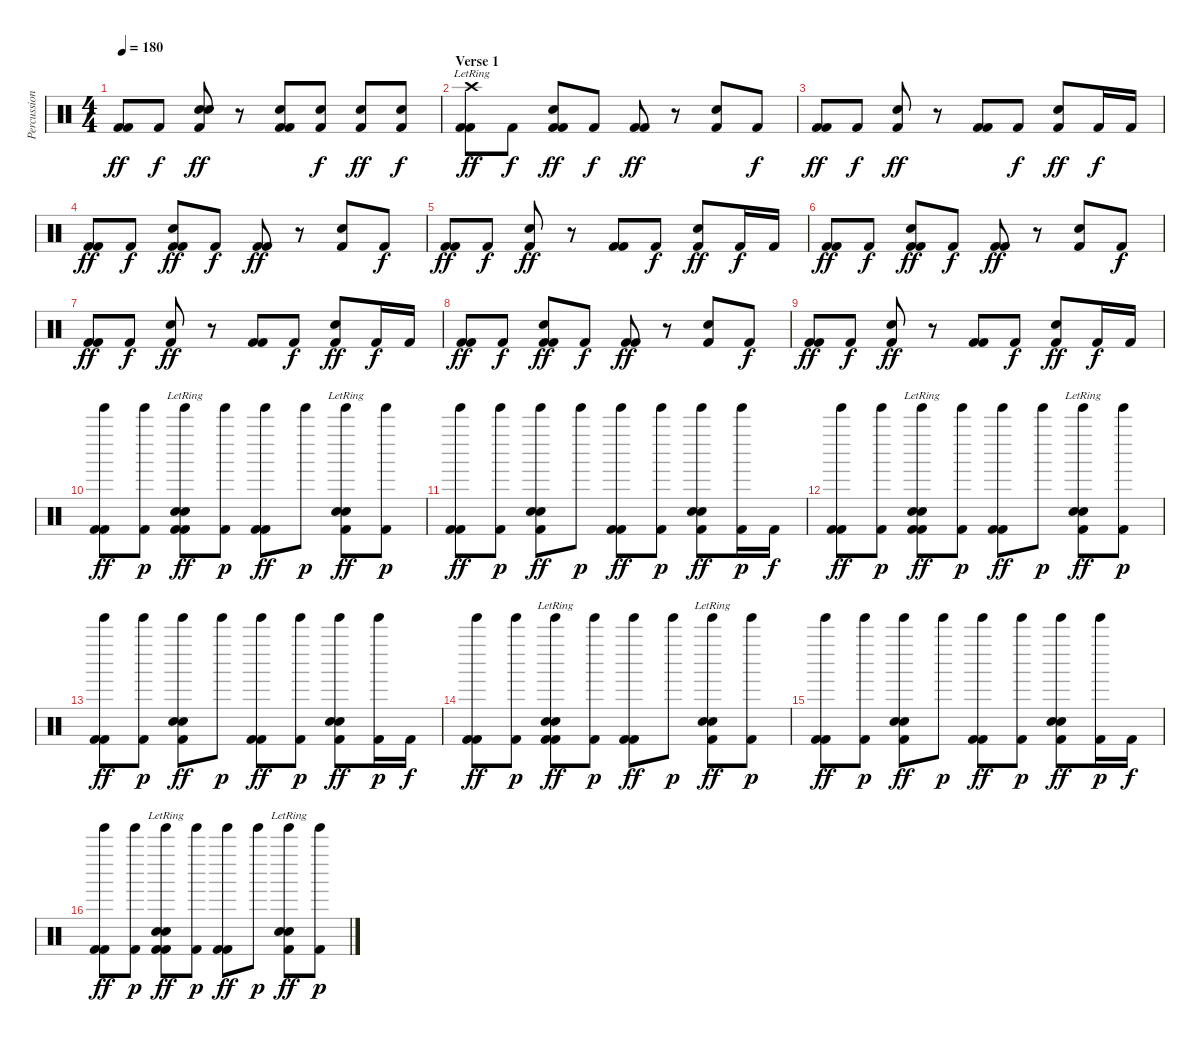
\track ("Percussion" "Percussion") {instrument percussion}
\staff {score}
\articulation defaults
\ts (4 4)
\tempo 180
\clef neutral
\ks c
("Kick (hit) 2" "Kick (hit) 2").8{dy ff} "Kick (hit) 2".8{dy f} ("Snare (hit) 2" "Electric Snare (hit)" "Kick (hit) 2").8{dy ff} r.8 ("Electric Snare (hit)" "Kick (hit) 2" "Kick (hit) 2").8 ("Electric Snare (hit)" "Kick (hit) 2").8{dy f} ("Electric Snare (hit)" "Kick (hit) 2").8{dy ff} ("Electric Snare (hit)" "Kick (hit) 2").8{dy f} |
\section ("" "Verse 1")
("Crash high (hit)"{lr} "Kick (hit) 2" "Kick (hit) 2").8{dy ff} "Kick (hit) 2".8{dy f} ("Electric Snare (hit)" "Kick (hit) 2" "Kick (hit) 2").8{dy ff} "Kick (hit) 2".8{dy f} ("Kick (hit) 2" "Kick (hit) 2").8{dy ff} r.8 ("Electric Snare (hit)" "Kick (hit) 2").8 "Kick (hit) 2".8{dy f} |
("Kick (hit) 2" "Kick (hit) 2").8{dy ff} "Kick (hit) 2".8{dy f} ("Electric Snare (hit)" "Kick (hit) 2").8{dy ff} r.8 ("Kick (hit) 2" "Kick (hit) 2").8 "Kick (hit) 2".8{dy f} ("Electric Snare (hit)" "Kick (hit) 2").8{dy ff} "Kick (hit) 2".16{dy f} "Kick (hit) 2".16 |
("Kick (hit) 2" "Kick (hit) 2").8{dy ff} "Kick (hit) 2".8{dy f} ("Electric Snare (hit)" "Kick (hit) 2" "Kick (hit) 2").8{dy ff} "Kick (hit) 2".8{dy f} ("Kick (hit) 2" "Kick (hit) 2").8{dy ff} r.8 ("Electric Snare (hit)" "Kick (hit) 2").8 "Kick (hit) 2".8{dy f} |
("Kick (hit) 2" "Kick (hit) 2").8{dy ff} "Kick (hit) 2".8{dy f} ("Electric Snare (hit)" "Kick (hit) 2").8{dy ff} r.8 ("Kick (hit) 2" "Kick (hit) 2").8 "Kick (hit) 2".8{dy f} ("Electric Snare (hit)" "Kick (hit) 2").8{dy ff} "Kick (hit) 2".16{dy f} "Kick (hit) 2".16 |
("Kick (hit) 2" "Kick (hit) 2").8{dy ff} "Kick (hit) 2".8{dy f} ("Electric Snare (hit)" "Kick (hit) 2" "Kick (hit) 2").8{dy ff} "Kick (hit) 2".8{dy f} ("Kick (hit) 2" "Kick (hit) 2").8{dy ff} r.8 ("Electric Snare (hit)" "Kick (hit) 2").8 "Kick (hit) 2".8{dy f} |
("Kick (hit) 2" "Kick (hit) 2").8{dy ff} "Kick (hit) 2".8{dy f} ("Electric Snare (hit)" "Kick (hit) 2").8{dy ff} r.8 ("Kick (hit) 2" "Kick (hit) 2").8 "Kick (hit) 2".8{dy f} ("Electric Snare (hit)" "Kick (hit) 2").8{dy ff} "Kick (hit) 2".16{dy f} "Kick (hit) 2".16 |
("Kick (hit) 2" "Kick (hit) 2").8{dy ff} "Kick (hit) 2".8{dy f} ("Electric Snare (hit)" "Kick (hit) 2" "Kick (hit) 2").8{dy ff} "Kick (hit) 2".8{dy f} ("Kick (hit) 2" "Kick (hit) 2").8{dy ff} r.8 ("Electric Snare (hit)" "Kick (hit) 2").8 "Kick (hit) 2".8{dy f} |
("Kick (hit) 2" "Kick (hit) 2").8{dy ff} "Kick (hit) 2".8{dy f} ("Electric Snare (hit)" "Kick (hit) 2").8{dy ff} r.8 ("Kick (hit) 2" "Kick (hit) 2").8 "Kick (hit) 2".8{dy f} ("Electric Snare (hit)" "Kick (hit) 2").8{dy ff} "Kick (hit) 2".16{dy f} "Kick (hit) 2".16 |
("Tinkle Bell (hit)" "Kick (hit) 2" "Kick (hit) 2").8{dy ff} ("Tinkle Bell (hit)" "Kick (hit) 2").8{dy p} ("Tinkle Bell (hit)" "Snare (hit) 2"{lr} "Electric Snare (hit)" "Kick (hit) 2" "Kick (hit) 2").8{dy ff} ("Tinkle Bell (hit)" "Kick (hit) 2").8{dy p} ("Tinkle Bell (hit)" "Kick (hit) 2" "Kick (hit) 2").8{dy ff} "Tinkle Bell (hit)".8{dy p} ("Tinkle Bell (hit)" "Snare (hit) 2"{lr} "Electric Snare (hit)" "Kick (hit) 2").8{dy ff} ("Tinkle Bell (hit)" "Kick (hit) 2").8{dy p} |
("Tinkle Bell (hit)" "Kick (hit) 2" "Kick (hit) 2").8{dy ff} ("Tinkle Bell (hit)" "Kick (hit) 2").8{dy p} ("Tinkle Bell (hit)" "Snare (hit) 2" "Electric Snare (hit)" "Kick (hit) 2").8{dy ff} "Tinkle Bell (hit)".8{dy p} ("Tinkle Bell (hit)" "Kick (hit) 2" "Kick (hit) 2").8{dy ff} ("Tinkle Bell (hit)" "Kick (hit) 2").8{dy p} ("Tinkle Bell (hit)" "Snare (hit) 2" "Electric Snare (hit)" "Kick (hit) 2").8{dy ff} ("Tinkle Bell (hit)" "Kick (hit) 2").16{dy p} "Kick (hit) 2".16{dy f} |
("Tinkle Bell (hit)" "Kick (hit) 2" "Kick (hit) 2").8{dy ff} ("Tinkle Bell (hit)" "Kick (hit) 2").8{dy p} ("Tinkle Bell (hit)" "Snare (hit) 2"{lr} "Electric Snare (hit)" "Kick (hit) 2" "Kick (hit) 2").8{dy ff} ("Tinkle Bell (hit)" "Kick (hit) 2").8{dy p} ("Tinkle Bell (hit)" "Kick (hit) 2" "Kick (hit) 2").8{dy ff} "Tinkle Bell (hit)".8{dy p} ("Tinkle Bell (hit)" "Snare (hit) 2"{lr} "Electric Snare (hit)" "Kick (hit) 2").8{dy ff} ("Tinkle Bell (hit)" "Kick (hit) 2").8{dy p} |
("Tinkle Bell (hit)" "Kick (hit) 2" "Kick (hit) 2").8{dy ff} ("Tinkle Bell (hit)" "Kick (hit) 2").8{dy p} ("Tinkle Bell (hit)" "Snare (hit) 2" "Electric Snare (hit)" "Kick (hit) 2").8{dy ff} "Tinkle Bell (hit)".8{dy p} ("Tinkle Bell (hit)" "Kick (hit) 2" "Kick (hit) 2").8{dy ff} ("Tinkle Bell (hit)" "Kick (hit) 2").8{dy p} ("Tinkle Bell (hit)" "Snare (hit) 2" "Electric Snare (hit)" "Kick (hit) 2").8{dy ff} ("Tinkle Bell (hit)" "Kick (hit) 2").16{dy p} "Kick (hit) 2".16{dy f} |
("Tinkle Bell (hit)" "Kick (hit) 2" "Kick (hit) 2").8{dy ff} ("Tinkle Bell (hit)" "Kick (hit) 2").8{dy p} ("Tinkle Bell (hit)" "Snare (hit) 2"{lr} "Electric Snare (hit)" "Kick (hit) 2" "Kick (hit) 2").8{dy ff} ("Tinkle Bell (hit)" "Kick (hit) 2").8{dy p} ("Tinkle Bell (hit)" "Kick (hit) 2" "Kick (hit) 2").8{dy ff} "Tinkle Bell (hit)".8{dy p} ("Tinkle Bell (hit)" "Snare (hit) 2"{lr} "Electric Snare (hit)" "Kick (hit) 2").8{dy ff} ("Tinkle Bell (hit)" "Kick (hit) 2").8{dy p} |
("Tinkle Bell (hit)" "Kick (hit) 2" "Kick (hit) 2").8{dy ff} ("Tinkle Bell (hit)" "Kick (hit) 2").8{dy p} ("Tinkle Bell (hit)" "Snare (hit) 2" "Electric Snare (hit)" "Kick (hit) 2").8{dy ff} "Tinkle Bell (hit)".8{dy p} ("Tinkle Bell (hit)" "Kick (hit) 2" "Kick (hit) 2").8{dy ff} ("Tinkle Bell (hit)" "Kick (hit) 2").8{dy p} ("Tinkle Bell (hit)" "Snare (hit) 2" "Electric Snare (hit)" "Kick (hit) 2").8{dy ff} ("Tinkle Bell (hit)" "Kick (hit) 2").16{dy p} "Kick (hit) 2".16{dy f} |
("Tinkle Bell (hit)" "Kick (hit) 2" "Kick (hit) 2").8{dy ff} ("Tinkle Bell (hit)" "Kick (hit) 2").8{dy p} ("Tinkle Bell (hit)" "Snare (hit) 2"{lr} "Electric Snare (hit)" "Kick (hit) 2" "Kick (hit) 2").8{dy ff} ("Tinkle Bell (hit)" "Kick (hit) 2").8{dy p} ("Tinkle Bell (hit)" "Kick (hit) 2" "Kick (hit) 2").8{dy ff} "Tinkle Bell (hit)".8{dy p} ("Tinkle Bell (hit)" "Snare (hit) 2"{lr} "Electric Snare (hit)" "Kick (hit) 2").8{dy ff} ("Tinkle Bell (hit)" "Kick (hit) 2").8{dy p}
